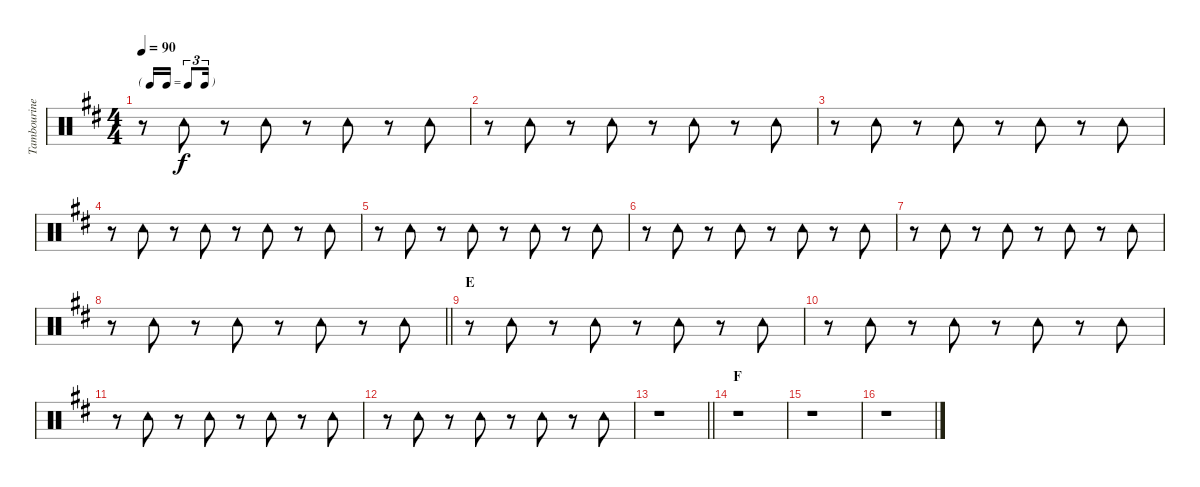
\track ("Tambourine" "Tambourine") {instrument percussion}
\staff {score}
\articulation defaults
\ts (4 4)
\tf triplet16th
\tempo 90
\clef neutral
\ks d
r.8{dy f} "Tambourine (hit)".8 r.8 "Tambourine (hit)".8 r.8 "Tambourine (hit)".8 r.8 "Tambourine (hit)".8 |
r.8 "Tambourine (hit)".8 r.8 "Tambourine (hit)".8 r.8 "Tambourine (hit)".8 r.8 "Tambourine (hit)".8 |
r.8 "Tambourine (hit)".8 r.8 "Tambourine (hit)".8 r.8 "Tambourine (hit)".8 r.8 "Tambourine (hit)".8 |
r.8 "Tambourine (hit)".8 r.8 "Tambourine (hit)".8 r.8 "Tambourine (hit)".8 r.8 "Tambourine (hit)".8 |
r.8 "Tambourine (hit)".8 r.8 "Tambourine (hit)".8 r.8 "Tambourine (hit)".8 r.8 "Tambourine (hit)".8 |
r.8 "Tambourine (hit)".8 r.8 "Tambourine (hit)".8 r.8 "Tambourine (hit)".8 r.8 "Tambourine (hit)".8 |
r.8 "Tambourine (hit)".8 r.8 "Tambourine (hit)".8 r.8 "Tambourine (hit)".8 r.8 "Tambourine (hit)".8 |
\barLineRight lightlight
r.8 "Tambourine (hit)".8 r.8 "Tambourine (hit)".8 r.8 "Tambourine (hit)".8 r.8 "Tambourine (hit)".8 |
\section ("" "E")
r.8 "Tambourine (hit)".8 r.8 "Tambourine (hit)".8 r.8 "Tambourine (hit)".8 r.8 "Tambourine (hit)".8 |
r.8 "Tambourine (hit)".8 r.8 "Tambourine (hit)".8 r.8 "Tambourine (hit)".8 r.8 "Tambourine (hit)".8 |
r.8 "Tambourine (hit)".8 r.8 "Tambourine (hit)".8 r.8 "Tambourine (hit)".8 r.8 "Tambourine (hit)".8 |
r.8 "Tambourine (hit)".8 r.8 "Tambourine (hit)".8 r.8 "Tambourine (hit)".8 r.8 "Tambourine (hit)".8 |
\barLineRight lightlight
r.1 |
\section ("" "F")
r.1 |
r.1 |
r.1
